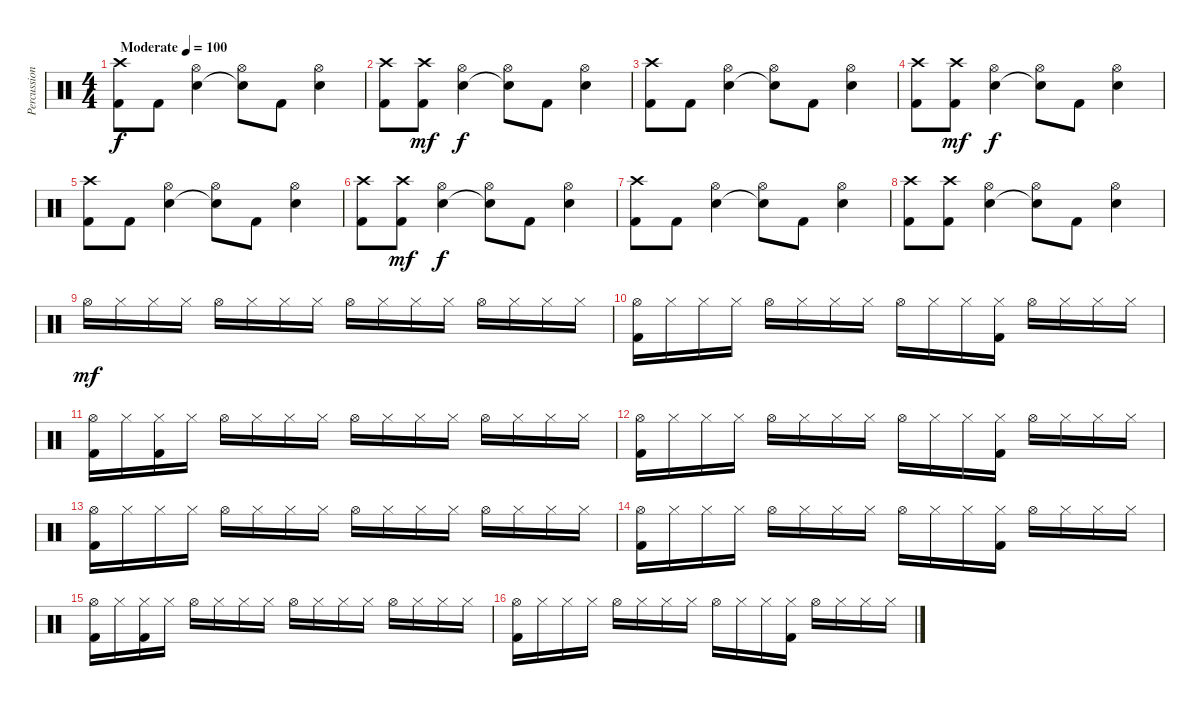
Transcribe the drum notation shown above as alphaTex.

\track ("Percussion" "Percussion") {instrument percussion}
\staff {score}
\articulation defaults
\ts (4 4)
\tempo (100 "Moderate")
\clef neutral
\ks c
("Crash high (hit)" "Kick (hit) 2").8{dy f} "Kick (hit) 2".8 ("Hi-Hat (open)" "Snare (hit) 2").4 ("Hi-Hat (open)" "Snare (hit) 2"{t}).8 "Kick (hit) 2".8 ("Hi-Hat (open)" "Snare (hit) 2").4 |
("Crash high (hit)" "Kick (hit) 2").8 ("Crash high (hit)" "Kick (hit) 2").8{dy mf} ("Hi-Hat (open)" "Snare (hit) 2").4{dy f} ("Hi-Hat (open)" "Snare (hit) 2"{t}).8 "Kick (hit) 2".8 ("Hi-Hat (open)" "Snare (hit) 2").4 |
("Crash high (hit)" "Kick (hit) 2").8 "Kick (hit) 2".8 ("Hi-Hat (open)" "Snare (hit) 2").4 ("Hi-Hat (open)" "Snare (hit) 2"{t}).8 "Kick (hit) 2".8 ("Hi-Hat (open)" "Snare (hit) 2").4 |
("Crash high (hit)" "Kick (hit) 2").8 ("Crash high (hit)" "Kick (hit) 2").8{dy mf} ("Hi-Hat (open)" "Snare (hit) 2").4{dy f} ("Hi-Hat (open)" "Snare (hit) 2"{t}).8 "Kick (hit) 2".8 ("Hi-Hat (open)" "Snare (hit) 2").4 |
("Crash high (hit)" "Kick (hit) 2").8 "Kick (hit) 2".8 ("Hi-Hat (open)" "Snare (hit) 2").4 ("Hi-Hat (open)" "Snare (hit) 2"{t}).8 "Kick (hit) 2".8 ("Hi-Hat (open)" "Snare (hit) 2").4 |
("Crash high (hit)" "Kick (hit) 2").8 ("Crash high (hit)" "Kick (hit) 2").8{dy mf} ("Hi-Hat (open)" "Snare (hit) 2").4{dy f} ("Hi-Hat (open)" "Snare (hit) 2"{t}).8 "Kick (hit) 2".8 ("Hi-Hat (open)" "Snare (hit) 2").4 |
("Crash high (hit)" "Kick (hit) 2").8 "Kick (hit) 2".8 ("Hi-Hat (open)" "Snare (hit) 2").4 ("Hi-Hat (open)" "Snare (hit) 2"{t}).8 "Kick (hit) 2".8 ("Hi-Hat (open)" "Snare (hit) 2").4 |
("Crash high (hit)" "Kick (hit) 2").8 ("Crash high (hit)" "Kick (hit) 2").8 ("Hi-Hat (open)" "Snare (hit) 2").4 ("Hi-Hat (open)" "Snare (hit) 2"{t}).8 "Kick (hit) 2".8 ("Hi-Hat (open)" "Snare (hit) 2").4 |
"Hi-Hat (open)".16{dy mf} "Hi-Hat (closed)".16 "Hi-Hat (closed)".16 "Hi-Hat (closed)".16 "Hi-Hat (open)".16 "Hi-Hat (closed)".16 "Hi-Hat (closed)".16 "Hi-Hat (closed)".16 "Hi-Hat (open)".16 "Hi-Hat (closed)".16 "Hi-Hat (closed)".16 "Hi-Hat (closed)".16 "Hi-Hat (open)".16 "Hi-Hat (closed)".16 "Hi-Hat (closed)".16 "Hi-Hat (closed)".16 |
("Hi-Hat (open)" "Kick (hit) 2").16 "Hi-Hat (closed)".16 "Hi-Hat (closed)".16 "Hi-Hat (closed)".16 "Hi-Hat (open)".16 "Hi-Hat (closed)".16 "Hi-Hat (closed)".16 "Hi-Hat (closed)".16 "Hi-Hat (open)".16 "Hi-Hat (closed)".16 "Hi-Hat (closed)".16 ("Hi-Hat (closed)" "Kick (hit) 2").16 "Hi-Hat (open)".16 "Hi-Hat (closed)".16 "Hi-Hat (closed)".16 "Hi-Hat (closed)".16 |
("Hi-Hat (open)" "Kick (hit) 2").16 "Hi-Hat (closed)".16 ("Hi-Hat (closed)" "Kick (hit) 2").16 "Hi-Hat (closed)".16 "Hi-Hat (open)".16 "Hi-Hat (closed)".16 "Hi-Hat (closed)".16 "Hi-Hat (closed)".16 "Hi-Hat (open)".16 "Hi-Hat (closed)".16 "Hi-Hat (closed)".16 "Hi-Hat (closed)".16 "Hi-Hat (open)".16 "Hi-Hat (closed)".16 "Hi-Hat (closed)".16 "Hi-Hat (closed)".16 |
("Hi-Hat (open)" "Kick (hit) 2").16 "Hi-Hat (closed)".16 "Hi-Hat (closed)".16 "Hi-Hat (closed)".16 "Hi-Hat (open)".16 "Hi-Hat (closed)".16 "Hi-Hat (closed)".16 "Hi-Hat (closed)".16 "Hi-Hat (open)".16 "Hi-Hat (closed)".16 "Hi-Hat (closed)".16 ("Hi-Hat (closed)" "Kick (hit) 2").16 "Hi-Hat (open)".16 "Hi-Hat (closed)".16 "Hi-Hat (closed)".16 "Hi-Hat (closed)".16 |
("Hi-Hat (open)" "Kick (hit) 2").16 "Hi-Hat (closed)".16 "Hi-Hat (closed)".16 "Hi-Hat (closed)".16 "Hi-Hat (open)".16 "Hi-Hat (closed)".16 "Hi-Hat (closed)".16 "Hi-Hat (closed)".16 "Hi-Hat (open)".16 "Hi-Hat (closed)".16 "Hi-Hat (closed)".16 "Hi-Hat (closed)".16 "Hi-Hat (open)".16 "Hi-Hat (closed)".16 "Hi-Hat (closed)".16 "Hi-Hat (closed)".16 |
("Hi-Hat (open)" "Kick (hit) 2").16 "Hi-Hat (closed)".16 "Hi-Hat (closed)".16 "Hi-Hat (closed)".16 "Hi-Hat (open)".16 "Hi-Hat (closed)".16 "Hi-Hat (closed)".16 "Hi-Hat (closed)".16 "Hi-Hat (open)".16 "Hi-Hat (closed)".16 "Hi-Hat (closed)".16 ("Hi-Hat (closed)" "Kick (hit) 2").16 "Hi-Hat (open)".16 "Hi-Hat (closed)".16 "Hi-Hat (closed)".16 "Hi-Hat (closed)".16 |
("Hi-Hat (open)" "Kick (hit) 2").16 "Hi-Hat (closed)".16 ("Hi-Hat (closed)" "Kick (hit) 2").16 "Hi-Hat (closed)".16 "Hi-Hat (open)".16 "Hi-Hat (closed)".16 "Hi-Hat (closed)".16 "Hi-Hat (closed)".16 "Hi-Hat (open)".16 "Hi-Hat (closed)".16 "Hi-Hat (closed)".16 "Hi-Hat (closed)".16 "Hi-Hat (open)".16 "Hi-Hat (closed)".16 "Hi-Hat (closed)".16 "Hi-Hat (closed)".16 |
("Hi-Hat (open)" "Kick (hit) 2").16 "Hi-Hat (closed)".16 "Hi-Hat (closed)".16 "Hi-Hat (closed)".16 "Hi-Hat (open)".16 "Hi-Hat (closed)".16 "Hi-Hat (closed)".16 "Hi-Hat (closed)".16 "Hi-Hat (open)".16 "Hi-Hat (closed)".16 "Hi-Hat (closed)".16 ("Hi-Hat (closed)" "Kick (hit) 2").16 "Hi-Hat (open)".16 "Hi-Hat (closed)".16 "Hi-Hat (closed)".16 "Hi-Hat (closed)".16
